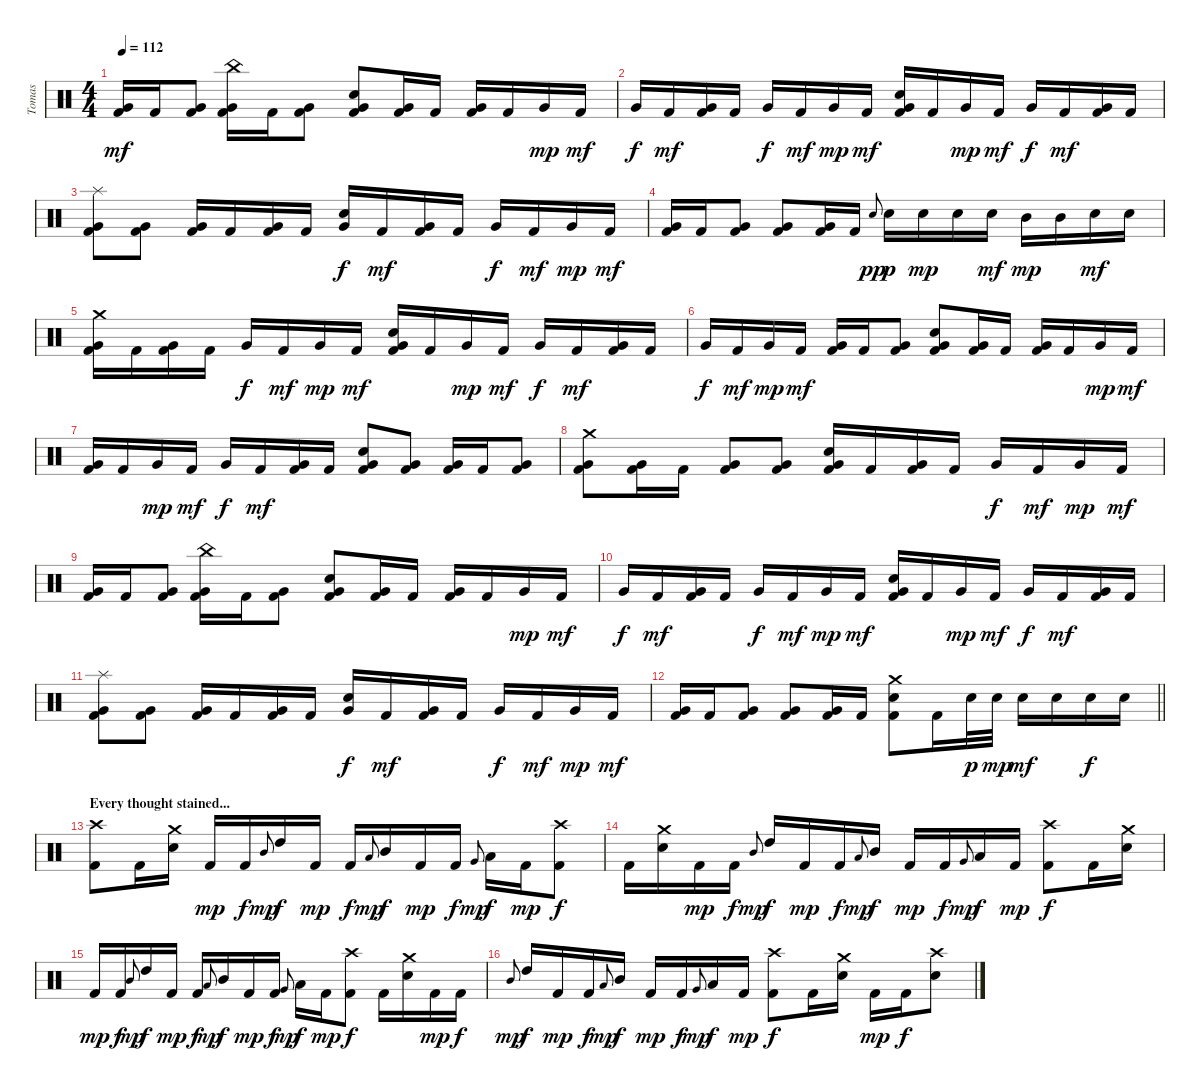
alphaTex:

\track ("Tomas" "Tomas") {instrument percussion}
\staff {score}
\articulation defaults
\ts (4 4)
\tempo 112
\clef neutral
\ks c
("Very Low Tom (hit)" "Kick (hit) 2").16{dy mf} "Kick (hit) 2".16 ("Very Low Tom (hit)" "Kick (hit) 2").8 ("China (hit)" "Very Low Tom (hit)" "Kick (hit) 2").16 "Kick (hit) 2".16 ("Very Low Tom (hit)" "Kick (hit) 2").8 ("Electric Snare (hit)" "Very Low Tom (hit)" "Kick (hit) 2").8 ("Very Low Tom (hit)" "Kick (hit) 2").16 "Kick (hit) 2".16 ("Very Low Tom (hit)" "Kick (hit) 2").16 "Kick (hit) 2".16 "Very Low Tom (hit)".16{dy mp} "Kick (hit) 2".16{dy mf} |
"Very Low Tom (hit)".16{dy f} "Kick (hit) 2".16{dy mf} ("Very Low Tom (hit)" "Kick (hit) 2").16 "Kick (hit) 2".16 "Very Low Tom (hit)".16{dy f} "Kick (hit) 2".16{dy mf} "Very Low Tom (hit)".16{dy mp} "Kick (hit) 2".16{dy mf} ("Electric Snare (hit)" "Very Low Tom (hit)" "Kick (hit) 2").16 "Kick (hit) 2".16 "Very Low Tom (hit)".16{dy mp} "Kick (hit) 2".16{dy mf} "Very Low Tom (hit)".16{dy f} "Kick (hit) 2".16{dy mf} ("Very Low Tom (hit)" "Kick (hit) 2").16 "Kick (hit) 2".16 |
("Splash (hit)" "Very Low Tom (hit)" "Kick (hit) 2").8 ("Very Low Tom (hit)" "Kick (hit) 2").8 ("Very Low Tom (hit)" "Kick (hit) 2").16 "Kick (hit) 2".16 ("Very Low Tom (hit)" "Kick (hit) 2").16 "Kick (hit) 2".16 ("Electric Snare (hit)" "Very Low Tom (hit)").16{dy f} "Kick (hit) 2".16{dy mf} ("Very Low Tom (hit)" "Kick (hit) 2").16 "Kick (hit) 2".16 "Very Low Tom (hit)".16{dy f} "Kick (hit) 2".16{dy mf} "Very Low Tom (hit)".16{dy mp} "Kick (hit) 2".16{dy mf} |
("Very Low Tom (hit)" "Kick (hit) 2").16 "Kick (hit) 2".16 ("Very Low Tom (hit)" "Kick (hit) 2").8 ("Very Low Tom (hit)" "Kick (hit) 2").8 ("Very Low Tom (hit)" "Kick (hit) 2").16 "Kick (hit) 2".16 "Electric Snare (hit)".8{gr onbeat dy pp} "Electric Snare (hit)".16{dy p} "Electric Snare (hit)".16{dy mp} "Electric Snare (hit)".16 "Electric Snare (hit)".16{dy mf} "Mid Tom (hit)".16{dy mp} "Mid Tom (hit)".16 "Electric Snare (hit)".16{dy mf} "Electric Snare (hit)".16 |
("Crash medium (hit)" "Very Low Tom (hit)" "Kick (hit) 2").16 "Kick (hit) 2".16 ("Very Low Tom (hit)" "Kick (hit) 2").16 "Kick (hit) 2".16 "Very Low Tom (hit)".16{dy f} "Kick (hit) 2".16{dy mf} "Very Low Tom (hit)".16{dy mp} "Kick (hit) 2".16{dy mf} ("Electric Snare (hit)" "Very Low Tom (hit)" "Kick (hit) 2").16 "Kick (hit) 2".16 "Very Low Tom (hit)".16{dy mp} "Kick (hit) 2".16{dy mf} "Very Low Tom (hit)".16{dy f} "Kick (hit) 2".16{dy mf} ("Very Low Tom (hit)" "Kick (hit) 2").16 "Kick (hit) 2".16 |
"Very Low Tom (hit)".16{dy f} "Kick (hit) 2".16{dy mf} "Very Low Tom (hit)".16{dy mp} "Kick (hit) 2".16{dy mf} ("Very Low Tom (hit)" "Kick (hit) 2").16 "Kick (hit) 2".16 ("Very Low Tom (hit)" "Kick (hit) 2").8 ("Electric Snare (hit)" "Very Low Tom (hit)" "Kick (hit) 2").8 ("Very Low Tom (hit)" "Kick (hit) 2").16 "Kick (hit) 2".16 ("Very Low Tom (hit)" "Kick (hit) 2").16 "Kick (hit) 2".16 "Very Low Tom (hit)".16{dy mp} "Kick (hit) 2".16{dy mf} |
("Very Low Tom (hit)" "Kick (hit) 2").16 "Kick (hit) 2".16 "Very Low Tom (hit)".16{dy mp} "Kick (hit) 2".16{dy mf} "Very Low Tom (hit)".16{dy f} "Kick (hit) 2".16{dy mf} ("Very Low Tom (hit)" "Kick (hit) 2").16 "Kick (hit) 2".16 ("Electric Snare (hit)" "Very Low Tom (hit)" "Kick (hit) 2").8 ("Very Low Tom (hit)" "Kick (hit) 2").8 ("Very Low Tom (hit)" "Kick (hit) 2").16 "Kick (hit) 2".16 ("Very Low Tom (hit)" "Kick (hit) 2").8 |
("Crash medium (hit)" "Very Low Tom (hit)" "Kick (hit) 2").8 ("Very Low Tom (hit)" "Kick (hit) 2").16 "Kick (hit) 2".16 ("Very Low Tom (hit)" "Kick (hit) 2").8 ("Very Low Tom (hit)" "Kick (hit) 2").8 ("Electric Snare (hit)" "Very Low Tom (hit)" "Kick (hit) 2").16 "Kick (hit) 2".16 ("Very Low Tom (hit)" "Kick (hit) 2").16 "Kick (hit) 2".16 "Very Low Tom (hit)".16{dy f} "Kick (hit) 2".16{dy mf} "Very Low Tom (hit)".16{dy mp} "Kick (hit) 2".16{dy mf} |
("Very Low Tom (hit)" "Kick (hit) 2").16 "Kick (hit) 2".16 ("Very Low Tom (hit)" "Kick (hit) 2").8 ("China (hit)" "Very Low Tom (hit)" "Kick (hit) 2").16 "Kick (hit) 2".16 ("Very Low Tom (hit)" "Kick (hit) 2").8 ("Electric Snare (hit)" "Very Low Tom (hit)" "Kick (hit) 2").8 ("Very Low Tom (hit)" "Kick (hit) 2").16 "Kick (hit) 2".16 ("Very Low Tom (hit)" "Kick (hit) 2").16 "Kick (hit) 2".16 "Very Low Tom (hit)".16{dy mp} "Kick (hit) 2".16{dy mf} |
"Very Low Tom (hit)".16{dy f} "Kick (hit) 2".16{dy mf} ("Very Low Tom (hit)" "Kick (hit) 2").16 "Kick (hit) 2".16 "Very Low Tom (hit)".16{dy f} "Kick (hit) 2".16{dy mf} "Very Low Tom (hit)".16{dy mp} "Kick (hit) 2".16{dy mf} ("Electric Snare (hit)" "Very Low Tom (hit)" "Kick (hit) 2").16 "Kick (hit) 2".16 "Very Low Tom (hit)".16{dy mp} "Kick (hit) 2".16{dy mf} "Very Low Tom (hit)".16{dy f} "Kick (hit) 2".16{dy mf} ("Very Low Tom (hit)" "Kick (hit) 2").16 "Kick (hit) 2".16 |
("Splash (hit)" "Very Low Tom (hit)" "Kick (hit) 2").8 ("Very Low Tom (hit)" "Kick (hit) 2").8 ("Very Low Tom (hit)" "Kick (hit) 2").16 "Kick (hit) 2".16 ("Very Low Tom (hit)" "Kick (hit) 2").16 "Kick (hit) 2".16 ("Electric Snare (hit)" "Very Low Tom (hit)").16{dy f} "Kick (hit) 2".16{dy mf} ("Very Low Tom (hit)" "Kick (hit) 2").16 "Kick (hit) 2".16 "Very Low Tom (hit)".16{dy f} "Kick (hit) 2".16{dy mf} "Very Low Tom (hit)".16{dy mp} "Kick (hit) 2".16{dy mf} |
\barLineRight lightlight
("Very Low Tom (hit)" "Kick (hit) 2").16 "Kick (hit) 2".16 ("Very Low Tom (hit)" "Kick (hit) 2").8 ("Very Low Tom (hit)" "Kick (hit) 2").8 ("Very Low Tom (hit)" "Kick (hit) 2").16 "Kick (hit) 2".16 ("Crash medium (hit)" "Electric Snare (hit)" "Kick (hit) 2").8 "Kick (hit) 2".16 "Electric Snare (hit)".32{dy p} "Electric Snare (hit)".32{dy mp} "Electric Snare (hit)".16{dy mf} "Electric Snare (hit)".16 "Electric Snare (hit)".16{dy f} "Electric Snare (hit)".16 |
\section ("" "Every thought stained...")
("Crash high (hit)" "Kick (hit) 2").8 "Kick (hit) 2".16 ("Crash medium (hit)" "Electric Snare (hit)").16 "Kick (hit) 2".16{dy mp} "Kick (hit) 2".16{dy f} "Mid Tom (hit)".8{gr onbeat dy mp} "High Tom (hit)".16{dy f} "Kick (hit) 2".16{dy mp} "Kick (hit) 2".16{dy f} "Low Tom (hit)".8{gr onbeat dy mp} "Mid Tom (hit)".16{dy f} "Kick (hit) 2".16{dy mp} "Kick (hit) 2".16{dy f} "Very Low Tom (hit)".8{gr onbeat dy mp} "Low Tom (hit)".16{dy f} "Kick (hit) 2".16{dy mp} ("Crash high (hit)" "Kick (hit) 2").8{dy f} |
"Kick (hit) 2".16 ("Crash medium (hit)" "Electric Snare (hit)").16 "Kick (hit) 2".16{dy mp} "Kick (hit) 2".16{dy f} "Mid Tom (hit)".8{gr onbeat dy mp} "High Tom (hit)".16{dy f} "Kick (hit) 2".16{dy mp} "Kick (hit) 2".16{dy f} "Low Tom (hit)".8{gr onbeat dy mp} "Mid Tom (hit)".16{dy f} "Kick (hit) 2".16{dy mp} "Kick (hit) 2".16{dy f} "Very Low Tom (hit)".8{gr onbeat dy mp} "Low Tom (hit)".16{dy f} "Kick (hit) 2".16{dy mp} ("Crash high (hit)" "Kick (hit) 2").8{dy f} "Kick (hit) 2".16 ("Crash medium (hit)" "Electric Snare (hit)").16 |
"Kick (hit) 2".16{dy mp} "Kick (hit) 2".16{dy f} "Mid Tom (hit)".8{gr onbeat dy mp} "High Tom (hit)".16{dy f} "Kick (hit) 2".16{dy mp} "Kick (hit) 2".16{dy f} "Low Tom (hit)".8{gr onbeat dy mp} "Mid Tom (hit)".16{dy f} "Kick (hit) 2".16{dy mp} "Kick (hit) 2".16{dy f} "Very Low Tom (hit)".8{gr onbeat dy mp} "Low Tom (hit)".16{dy f} "Kick (hit) 2".16{dy mp} ("Crash high (hit)" "Kick (hit) 2").8{dy f} "Kick (hit) 2".16 ("Crash medium (hit)" "Electric Snare (hit)").16 "Kick (hit) 2".16{dy mp} "Kick (hit) 2".16{dy f} |
"Mid Tom (hit)".8{gr onbeat dy mp} "High Tom (hit)".16{dy f} "Kick (hit) 2".16{dy mp} "Kick (hit) 2".16{dy f} "Low Tom (hit)".8{gr onbeat dy mp} "Mid Tom (hit)".16{dy f} "Kick (hit) 2".16{dy mp} "Kick (hit) 2".16{dy f} "Very Low Tom (hit)".8{gr onbeat dy mp} "Low Tom (hit)".16{dy f} "Kick (hit) 2".16{dy mp} ("Crash high (hit)" "Kick (hit) 2").8{dy f} "Kick (hit) 2".16 ("Crash medium (hit)" "Electric Snare (hit)").16 "Kick (hit) 2".16{dy mp} "Kick (hit) 2".16{dy f} ("Crash high (hit)" "Electric Snare (hit)").8
